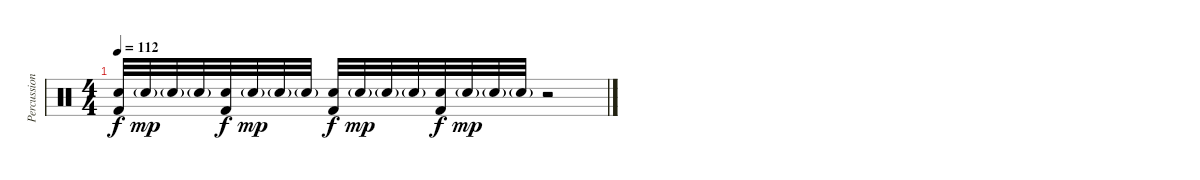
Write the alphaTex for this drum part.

\track ("Percussion" "Percussion") {instrument percussion}
\staff {score}
\articulation defaults
\ts (4 4)
\tempo 112
\clef neutral
\ks c
("Snare (hit) 2" "Kick (hit) 2").32{dy f} "Snare (hit) 2"{g}.32{dy mp} "Snare (hit) 2"{g}.32 "Snare (hit) 2"{g}.32 ("Snare (hit) 2" "Kick (hit) 2").32{dy f} "Snare (hit) 2"{g}.32{dy mp} "Snare (hit) 2"{g}.32 "Snare (hit) 2"{g}.32 ("Snare (hit) 2" "Kick (hit) 2").32{dy f} "Snare (hit) 2"{g}.32{dy mp} "Snare (hit) 2"{g}.32 "Snare (hit) 2"{g}.32 ("Snare (hit) 2" "Kick (hit) 2").32{dy f} "Snare (hit) 2"{g}.32{dy mp} "Snare (hit) 2"{g}.32 "Snare (hit) 2"{g}.32 r.2
